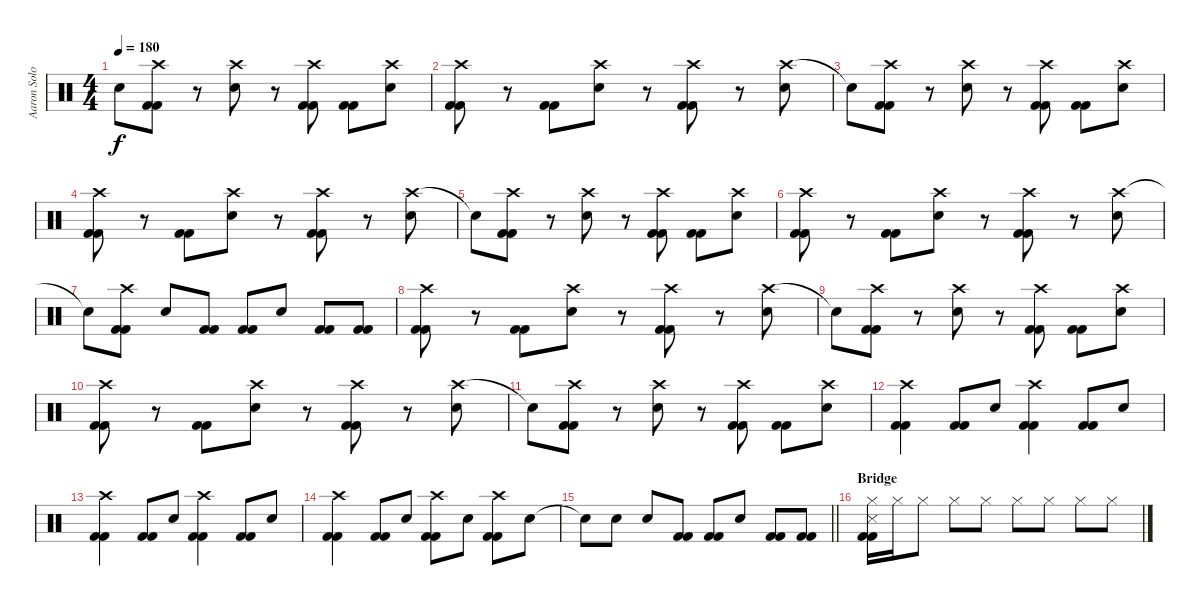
\track ("Aaron Solowoniuk" "Aaron Solo") {instrument percussion}
\staff {score}
\articulation defaults
\ts (4 4)
\tempo 180
\clef neutral
\ks c "Snare (hit)"{t}.8{dy f}
("Crash high (hit)" "Kick (hit) 2" "Kick (hit) 2").8 r.8 ("Crash high (hit)" "Electric Snare (hit)").8 r.8 ("Crash high (hit)" "Kick (hit) 2" "Kick (hit) 2").8 ("Kick (hit) 2" "Kick (hit) 2").8 ("Crash high (hit)" "Electric Snare (hit)").8 |
("Crash high (hit)" "Kick (hit) 2" "Kick (hit) 2").8 r.8 ("Kick (hit) 2" "Kick (hit) 2").8 ("Crash high (hit)" "Electric Snare (hit)").8 r.8 ("Crash high (hit)" "Kick (hit) 2" "Kick (hit) 2").8 r.8 ("Crash high (hit)" "Electric Snare (hit)").8 |
"Snare (hit)"{t}.8 ("Crash high (hit)" "Kick (hit) 2" "Kick (hit) 2").8 r.8 ("Crash high (hit)" "Electric Snare (hit)").8 r.8 ("Crash high (hit)" "Kick (hit) 2" "Kick (hit) 2").8 ("Kick (hit) 2" "Kick (hit) 2").8 ("Crash high (hit)" "Electric Snare (hit)").8 |
("Crash high (hit)" "Kick (hit) 2" "Kick (hit) 2").8 r.8 ("Kick (hit) 2" "Kick (hit) 2").8 ("Crash high (hit)" "Electric Snare (hit)").8 r.8 ("Crash high (hit)" "Kick (hit) 2" "Kick (hit) 2").8 r.8 ("Crash high (hit)" "Electric Snare (hit)").8 |
"Snare (hit)"{t}.8 ("Crash high (hit)" "Kick (hit) 2" "Kick (hit) 2").8 r.8 ("Crash high (hit)" "Electric Snare (hit)").8 r.8 ("Crash high (hit)" "Kick (hit) 2" "Kick (hit) 2").8 ("Kick (hit) 2" "Kick (hit) 2").8 ("Crash high (hit)" "Electric Snare (hit)").8 |
("Crash high (hit)" "Kick (hit) 2" "Kick (hit) 2").8 r.8 ("Kick (hit) 2" "Kick (hit) 2").8 ("Crash high (hit)" "Electric Snare (hit)").8 r.8 ("Crash high (hit)" "Kick (hit) 2" "Kick (hit) 2").8 r.8 ("Crash high (hit)" "Electric Snare (hit)").8 |
"Snare (hit)"{t}.8 ("Crash high (hit)" "Kick (hit) 2" "Kick (hit) 2").8 "Electric Snare (hit)".8 ("Kick (hit) 2" "Kick (hit) 2").8 ("Kick (hit) 2" "Kick (hit) 2").8 "Electric Snare (hit)".8 ("Kick (hit) 2" "Kick (hit) 2").8 ("Kick (hit) 2" "Kick (hit) 2").8 |
("Crash high (hit)" "Kick (hit) 2" "Kick (hit) 2").8 r.8 ("Kick (hit) 2" "Kick (hit) 2").8 ("Crash high (hit)" "Electric Snare (hit)").8 r.8 ("Crash high (hit)" "Kick (hit) 2" "Kick (hit) 2").8 r.8 ("Crash high (hit)" "Electric Snare (hit)").8 |
"Snare (hit)"{t}.8 ("Crash high (hit)" "Kick (hit) 2" "Kick (hit) 2").8 r.8 ("Crash high (hit)" "Electric Snare (hit)").8 r.8 ("Crash high (hit)" "Kick (hit) 2" "Kick (hit) 2").8 ("Kick (hit) 2" "Kick (hit) 2").8 ("Crash high (hit)" "Electric Snare (hit)").8 |
("Crash high (hit)" "Kick (hit) 2" "Kick (hit) 2").8 r.8 ("Kick (hit) 2" "Kick (hit) 2").8 ("Crash high (hit)" "Electric Snare (hit)").8 r.8 ("Crash high (hit)" "Kick (hit) 2" "Kick (hit) 2").8 r.8 ("Crash high (hit)" "Electric Snare (hit)").8 |
"Snare (hit)"{t}.8 ("Crash high (hit)" "Kick (hit) 2" "Kick (hit) 2").8 r.8 ("Crash high (hit)" "Electric Snare (hit)").8 r.8 ("Crash high (hit)" "Kick (hit) 2" "Kick (hit) 2").8 ("Kick (hit) 2" "Kick (hit) 2").8 ("Crash high (hit)" "Electric Snare (hit)").8 |
("Crash high (hit)" "Kick (hit) 2" "Kick (hit) 2").4 ("Kick (hit) 2" "Kick (hit) 2").8 "Electric Snare (hit)".8 ("Crash high (hit)" "Kick (hit) 2" "Kick (hit) 2").4 ("Kick (hit) 2" "Kick (hit) 2").8 "Electric Snare (hit)".8 |
("Crash high (hit)" "Kick (hit) 2" "Kick (hit) 2").4 ("Kick (hit) 2" "Kick (hit) 2").8 "Electric Snare (hit)".8 ("Crash high (hit)" "Kick (hit) 2" "Kick (hit) 2").4 ("Kick (hit) 2" "Kick (hit) 2").8 "Electric Snare (hit)".8 |
("Crash high (hit)" "Kick (hit) 2" "Kick (hit) 2").4 ("Kick (hit) 2" "Kick (hit) 2").8 "Electric Snare (hit)".8 ("Crash high (hit)" "Kick (hit) 2" "Kick (hit) 2").8 "Electric Snare (hit)".8 ("Crash high (hit)" "Kick (hit) 2" "Kick (hit) 2").8 "Electric Snare (hit)".8 |
\barLineRight lightlight "Snare (hit)"{t}.8 "Electric Snare (hit)".8 "Electric Snare (hit)".8
("Kick (hit) 2" "Kick (hit) 2").8 ("Kick (hit) 2" "Kick (hit) 2").8 "Electric Snare (hit)".8 ("Kick (hit) 2" "Kick (hit) 2").8 ("Kick (hit) 2" "Kick (hit) 2").8 |
\section ("" "Bridge")
("Hi-Hat (closed)" "Snare (side stick) 3" "Kick (hit) 2" "Kick (hit) 2").16{volume 8} "Hi-Hat (closed)".16 "Hi-Hat (closed)".8 "Hi-Hat (closed)".8 "Hi-Hat (closed)".8 "Hi-Hat (closed)".8 "Hi-Hat (closed)".8 "Hi-Hat (closed)".8 "Hi-Hat (closed)".8
